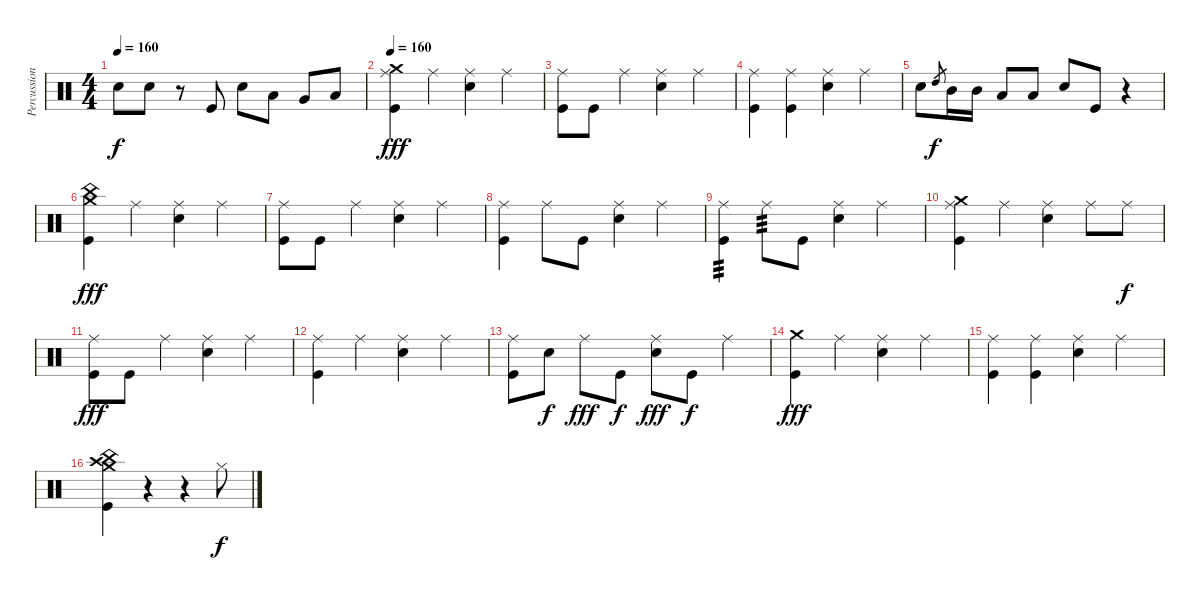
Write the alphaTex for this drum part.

\track ("Percussioni" "Percussion") {instrument percussion}
\staff {score}
\articulation defaults
\ts (4 4)
\tempo 160
\clef neutral
\ks c "Snare (hit) 2".8{dy f} "Snare (hit) 2".8
r.8 "Kick (hit)".8 "Snare (hit) 2".8 "Low Tom (hit)".8 "Very Low Tom (hit)".8 "Low Floor Tom (hit)".8 |
\tempo 160
("Crash medium (hit)" "Ride (middle)" "Kick (hit)").4{dy fff} "Ride (middle)".4 ("Ride (middle)" "Snare (hit) 2").4 "Ride (middle)".4 |
("Ride (middle)" "Kick (hit)").8 "Kick (hit)".8 "Ride (middle)".4 ("Ride (middle)" "Snare (hit) 2").4 "Ride (middle)".4 |
("Ride (middle)" "Kick (hit)").4 ("Ride (middle)" "Kick (hit)").4 ("Ride (middle)" "Snare (hit) 2").4 "Ride (middle)".4 |
"Snare (hit) 2".8 "High Tom (hit)".8{gr dy f} "Mid Tom (hit)".16 "Mid Tom (hit)".16 "Low Tom (hit)".8 "Low Tom (hit)".8 "Snare (hit) 2".8 "Kick (hit)".8 r.4 |
("China (hit)" "Crash medium (hit)" "Kick (hit)").4{dy fff} "Ride (middle)".4 ("Ride (middle)" "Snare (hit) 2").4 "Ride (middle)".4 |
("Ride (middle)" "Kick (hit)").8 "Kick (hit)".8 "Ride (middle)".4 ("Ride (middle)" "Snare (hit) 2").4 "Ride (middle)".4 |
("Ride (middle)" "Kick (hit)").4 "Ride (middle)".8 "Kick (hit)".8 ("Ride (middle)" "Snare (hit) 2").4 "Ride (middle)".4 |
("Ride (middle)" "Kick (hit)").4{tp 3} "Ride (middle)".8{tp 3} "Kick (hit)".8 ("Ride (middle)" "Snare (hit) 2").4 "Ride (middle)".4 |
("Crash medium (hit)" "Ride (middle)" "Kick (hit)").4 "Ride (middle)".4 ("Ride (middle)" "Snare (hit) 2").4 "Ride (middle)".8 "Ride (middle)".8{dy f} |
("Ride (middle)" "Kick (hit)").8{dy fff} "Kick (hit)".8 "Ride (middle)".4 ("Ride (middle)" "Snare (hit) 2").4 "Ride (middle)".4 |
("Ride (middle)" "Kick (hit)").4 "Ride (middle)".4 ("Ride (middle)" "Snare (hit) 2").4 "Ride (middle)".4 |
("Ride (middle)" "Kick (hit)").8 "Snare (hit) 2".8{dy f} "Ride (middle)".8{dy fff} "Kick (hit)".8{dy f} ("Ride (middle)" "Snare (hit) 2").8{dy fff} "Kick (hit)".8{dy f} "Ride (middle)".4 |
("Crash medium (hit)" "Kick (hit)").4{dy fff} "Ride (middle)".4 ("Ride (middle)" "Snare (hit) 2").4 "Ride (middle)".4 |
("Ride (middle)" "Kick (hit)").4 ("Ride (middle)" "Kick (hit)").4 ("Ride (middle)" "Snare (hit) 2").4 "Ride (middle)".4 |
("China (hit)" "Crash high (hit)" "Crash medium (hit)" "Kick (hit)").4 r.4 r.4 "Hi-Hat (closed)".8{dy f}
